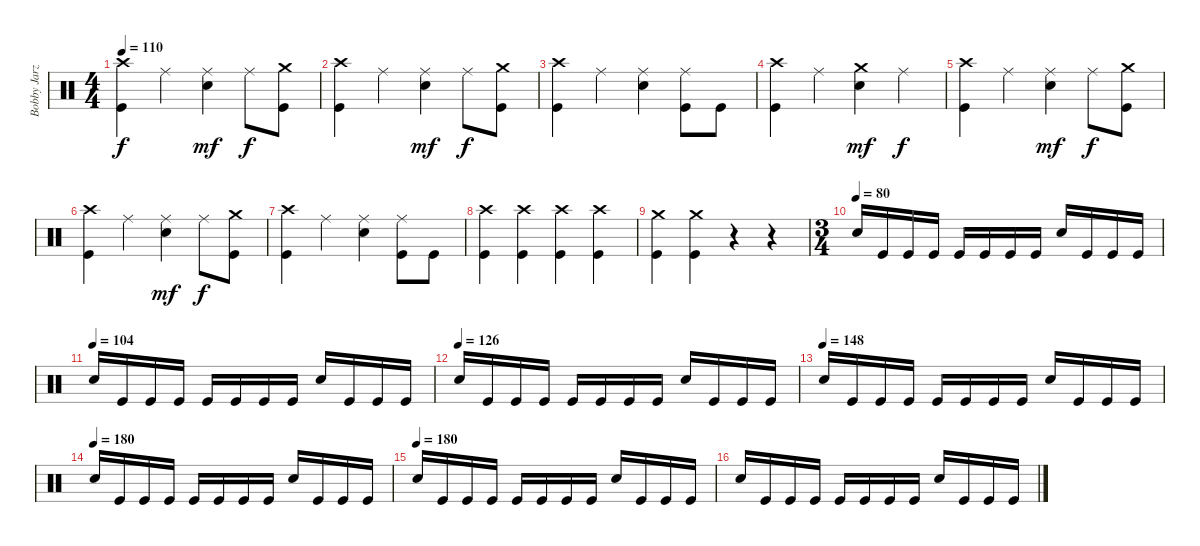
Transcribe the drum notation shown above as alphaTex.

\track ("Bobby Jarzombek" "Bobby Jarz") {instrument percussion}
\staff {score}
\articulation defaults
\ts (4 4)
\tempo 110
\clef neutral
\ks c
("Crash high (hit)" "Kick (hit)").4{dy f} "Ride (middle)".4 ("Ride (middle)" "Electric Snare (hit)").4{dy mf} "Ride (middle)".8{dy f} ("Crash medium (hit)" "Kick (hit)").8 |
("Crash high (hit)" "Kick (hit)").4 "Ride (middle)".4 ("Ride (middle)" "Electric Snare (hit)").4{dy mf} "Ride (middle)".8{dy f} ("Crash medium (hit)" "Kick (hit)").8 |
("Crash high (hit)" "Kick (hit)").4 "Ride (middle)".4 ("Ride (middle)" "Electric Snare (hit)").4 ("Ride (middle)" "Kick (hit)").8 "Kick (hit)".8 |
("Crash high (hit)" "Kick (hit)").4 "Ride (middle)".4 ("Crash medium (hit)" "Electric Snare (hit)").4{dy mf} "Ride (middle)".4{dy f} |
("Crash high (hit)" "Kick (hit)").4 "Ride (middle)".4 ("Ride (middle)" "Electric Snare (hit)").4{dy mf} "Ride (middle)".8{dy f} ("Crash medium (hit)" "Kick (hit)").8 |
("Crash high (hit)" "Kick (hit)").4 "Ride (middle)".4 ("Ride (middle)" "Electric Snare (hit)").4{dy mf} "Ride (middle)".8{dy f} ("Crash medium (hit)" "Kick (hit)").8 |
("Crash high (hit)" "Kick (hit)").4 "Ride (middle)".4 ("Ride (middle)" "Electric Snare (hit)").4 ("Ride (middle)" "Kick (hit)").8 "Kick (hit)".8 |
("Crash high (hit)" "Kick (hit)").4 ("Crash high (hit)" "Kick (hit)").4 ("Crash high (hit)" "Kick (hit)").4 ("Crash high (hit)" "Kick (hit)").4 |
("Crash medium (hit)" "Kick (hit)").4 ("Crash medium (hit)" "Kick (hit)").4 r.4 r.4 |
\ts (3 4)
\tempo (80)
"Electric Snare (hit)".16 "Kick (hit)".16 "Kick (hit)".16 "Kick (hit)".16 "Kick (hit)".16 "Kick (hit)".16 "Kick (hit)".16 "Kick (hit)".16 "Electric Snare (hit)".16 "Kick (hit)".16 "Kick (hit)".16 "Kick (hit)".16 |
\tempo (104)
"Electric Snare (hit)".16 "Kick (hit)".16 "Kick (hit)".16 "Kick (hit)".16 "Kick (hit)".16 "Kick (hit)".16 "Kick (hit)".16 "Kick (hit)".16 "Electric Snare (hit)".16 "Kick (hit)".16 "Kick (hit)".16 "Kick (hit)".16 |
\tempo (126)
"Electric Snare (hit)".16 "Kick (hit)".16 "Kick (hit)".16 "Kick (hit)".16 "Kick (hit)".16 "Kick (hit)".16 "Kick (hit)".16 "Kick (hit)".16 "Electric Snare (hit)".16 "Kick (hit)".16 "Kick (hit)".16 "Kick (hit)".16 |
\tempo (148)
"Electric Snare (hit)".16 "Kick (hit)".16 "Kick (hit)".16 "Kick (hit)".16 "Kick (hit)".16 "Kick (hit)".16 "Kick (hit)".16 "Kick (hit)".16 "Electric Snare (hit)".16 "Kick (hit)".16 "Kick (hit)".16 "Kick (hit)".16 |
\tempo (180)
"Electric Snare (hit)".16 "Kick (hit)".16 "Kick (hit)".16 "Kick (hit)".16 "Kick (hit)".16 "Kick (hit)".16 "Kick (hit)".16 "Kick (hit)".16 "Electric Snare (hit)".16 "Kick (hit)".16 "Kick (hit)".16 "Kick (hit)".16 |
\tempo (180)
"Electric Snare (hit)".16 "Kick (hit)".16 "Kick (hit)".16 "Kick (hit)".16 "Kick (hit)".16 "Kick (hit)".16 "Kick (hit)".16 "Kick (hit)".16 "Electric Snare (hit)".16 "Kick (hit)".16 "Kick (hit)".16 "Kick (hit)".16 |
"Electric Snare (hit)".16 "Kick (hit)".16 "Kick (hit)".16 "Kick (hit)".16 "Kick (hit)".16 "Kick (hit)".16 "Kick (hit)".16 "Kick (hit)".16 "Electric Snare (hit)".16 "Kick (hit)".16 "Kick (hit)".16 "Kick (hit)".16
